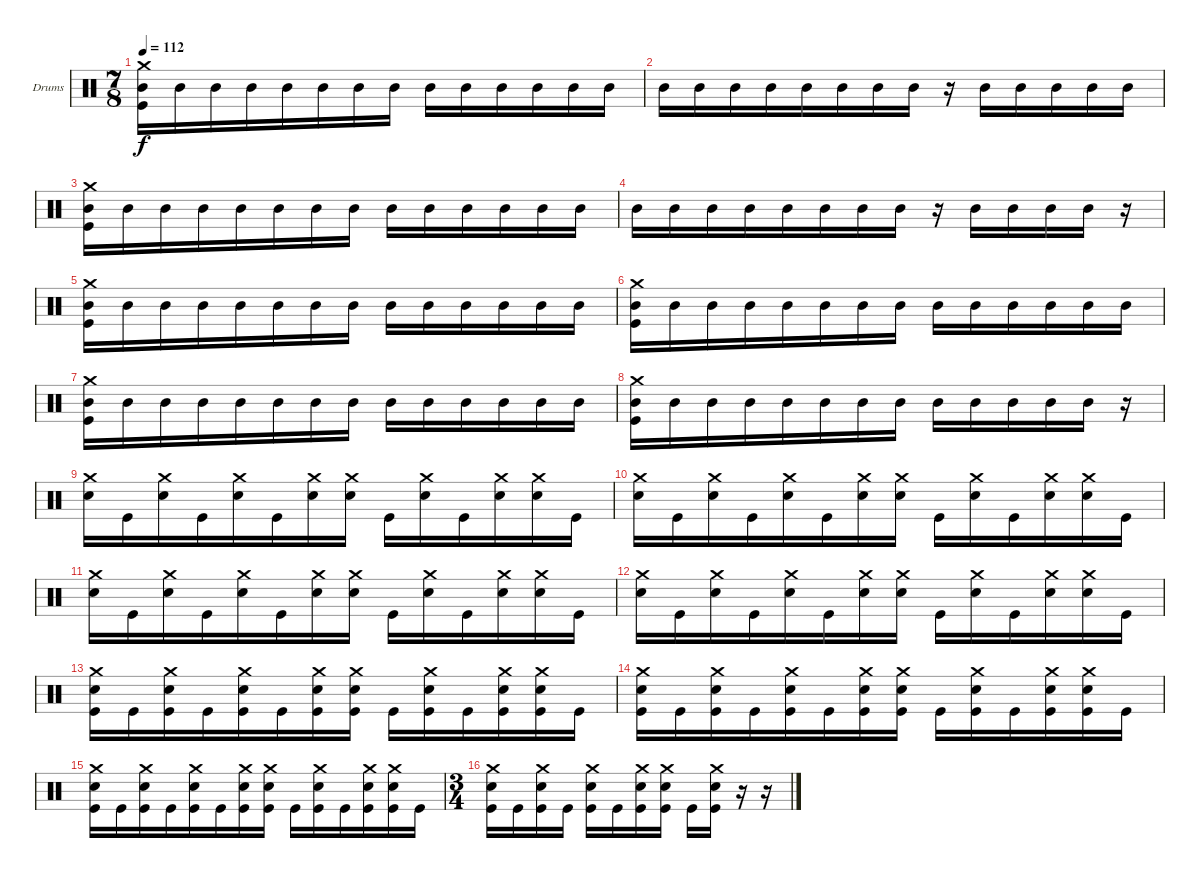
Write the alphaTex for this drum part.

\bracketExtendMode groupsimilarinstruments
\firstSystemTrackNameOrientation horizontal
\otherSystemsTrackNameOrientation horizontal
\track ("Drumkit" "Drums") {instrument percussion}
\staff {score}
\articulation defaults
\ts (7 8)
\tempo 112
\clef neutral
\ks c
("Crash medium (hit)" "Mid Tom (hit)" "Kick (hit)").16{dy f} "Mid Tom (hit)".16 "Mid Tom (hit)".16 "Mid Tom (hit)".16 "Mid Tom (hit)".16 "Mid Tom (hit)".16 "Mid Tom (hit)".16 "Mid Tom (hit)".16 "Mid Tom (hit)".16 "Mid Tom (hit)".16 "Mid Tom (hit)".16 "Mid Tom (hit)".16 "Mid Tom (hit)".16 "Mid Tom (hit)".16 |
"Mid Tom (hit)".16 "Mid Tom (hit)".16 "Mid Tom (hit)".16 "Mid Tom (hit)".16 "Mid Tom (hit)".16 "Mid Tom (hit)".16 "Mid Tom (hit)".16 "Mid Tom (hit)".16 r.16 "Mid Tom (hit)".16 "Mid Tom (hit)".16 "Mid Tom (hit)".16 "Mid Tom (hit)".16 "Mid Tom (hit)".16 |
("Crash medium (hit)" "Mid Tom (hit)" "Kick (hit)").16 "Mid Tom (hit)".16 "Mid Tom (hit)".16 "Mid Tom (hit)".16 "Mid Tom (hit)".16 "Mid Tom (hit)".16 "Mid Tom (hit)".16 "Mid Tom (hit)".16 "Mid Tom (hit)".16 "Mid Tom (hit)".16 "Mid Tom (hit)".16 "Mid Tom (hit)".16 "Mid Tom (hit)".16 "Mid Tom (hit)".16 |
"Mid Tom (hit)".16 "Mid Tom (hit)".16 "Mid Tom (hit)".16 "Mid Tom (hit)".16 "Mid Tom (hit)".16 "Mid Tom (hit)".16 "Mid Tom (hit)".16 "Mid Tom (hit)".16 r.16 "Mid Tom (hit)".16 "Mid Tom (hit)".16 "Mid Tom (hit)".16 "Mid Tom (hit)".16 r.16 |
("Crash medium (hit)" "Mid Tom (hit)" "Kick (hit)").16 "Mid Tom (hit)".16 "Mid Tom (hit)".16 "Mid Tom (hit)".16 "Mid Tom (hit)".16 "Mid Tom (hit)".16 "Mid Tom (hit)".16 "Mid Tom (hit)".16 "Mid Tom (hit)".16 "Mid Tom (hit)".16 "Mid Tom (hit)".16 "Mid Tom (hit)".16 "Mid Tom (hit)".16 "Mid Tom (hit)".16 |
("Crash medium (hit)" "Mid Tom (hit)" "Kick (hit)").16 "Mid Tom (hit)".16 "Mid Tom (hit)".16 "Mid Tom (hit)".16 "Mid Tom (hit)".16 "Mid Tom (hit)".16 "Mid Tom (hit)".16 "Mid Tom (hit)".16 "Mid Tom (hit)".16 "Mid Tom (hit)".16 "Mid Tom (hit)".16 "Mid Tom (hit)".16 "Mid Tom (hit)".16 "Mid Tom (hit)".16 |
("Crash medium (hit)" "Mid Tom (hit)" "Kick (hit)").16 "Mid Tom (hit)".16 "Mid Tom (hit)".16 "Mid Tom (hit)".16 "Mid Tom (hit)".16 "Mid Tom (hit)".16 "Mid Tom (hit)".16 "Mid Tom (hit)".16 "Mid Tom (hit)".16 "Mid Tom (hit)".16 "Mid Tom (hit)".16 "Mid Tom (hit)".16 "Mid Tom (hit)".16 "Mid Tom (hit)".16 |
("Crash medium (hit)" "Mid Tom (hit)" "Kick (hit)").16 "Mid Tom (hit)".16 "Mid Tom (hit)".16 "Mid Tom (hit)".16 "Mid Tom (hit)".16 "Mid Tom (hit)".16 "Mid Tom (hit)".16 "Mid Tom (hit)".16 "Mid Tom (hit)".16 "Mid Tom (hit)".16 "Mid Tom (hit)".16 "Mid Tom (hit)".16 "Mid Tom (hit)".16 r.16 |
("Crash medium (hit)" "Snare (hit) 2").16 "Kick (hit)".16 ("Crash medium (hit)" "Snare (hit) 2").16 "Kick (hit)".16 ("Crash medium (hit)" "Snare (hit) 2").16 "Kick (hit)".16 ("Crash medium (hit)" "Snare (hit) 2").16 ("Crash medium (hit)" "Snare (hit) 2").16 "Kick (hit)".16 ("Crash medium (hit)" "Snare (hit) 2").16 "Kick (hit)".16 ("Crash medium (hit)" "Snare (hit) 2").16 ("Crash medium (hit)" "Snare (hit) 2").16 "Kick (hit)".16 |
("Crash medium (hit)" "Snare (hit) 2").16 "Kick (hit)".16 ("Crash medium (hit)" "Snare (hit) 2").16 "Kick (hit)".16 ("Crash medium (hit)" "Snare (hit) 2").16 "Kick (hit)".16 ("Crash medium (hit)" "Snare (hit) 2").16 ("Crash medium (hit)" "Snare (hit) 2").16 "Kick (hit)".16 ("Crash medium (hit)" "Snare (hit) 2").16 "Kick (hit)".16 ("Crash medium (hit)" "Snare (hit) 2").16 ("Crash medium (hit)" "Snare (hit) 2").16 "Kick (hit)".16 |
("Crash medium (hit)" "Snare (hit) 2").16 "Kick (hit)".16 ("Crash medium (hit)" "Snare (hit) 2").16 "Kick (hit)".16 ("Crash medium (hit)" "Snare (hit) 2").16 "Kick (hit)".16 ("Crash medium (hit)" "Snare (hit) 2").16 ("Crash medium (hit)" "Snare (hit) 2").16 "Kick (hit)".16 ("Crash medium (hit)" "Snare (hit) 2").16 "Kick (hit)".16 ("Crash medium (hit)" "Snare (hit) 2").16 ("Crash medium (hit)" "Snare (hit) 2").16 "Kick (hit)".16 |
("Crash medium (hit)" "Snare (hit) 2").16 "Kick (hit)".16 ("Crash medium (hit)" "Snare (hit) 2").16 "Kick (hit)".16 ("Crash medium (hit)" "Snare (hit) 2").16 "Kick (hit)".16 ("Crash medium (hit)" "Snare (hit) 2").16 ("Crash medium (hit)" "Snare (hit) 2").16 "Kick (hit)".16 ("Crash medium (hit)" "Snare (hit) 2").16 "Kick (hit)".16 ("Crash medium (hit)" "Snare (hit) 2").16 ("Crash medium (hit)" "Snare (hit) 2").16 "Kick (hit)".16 |
("Crash medium (hit)" "Snare (hit) 2" "Kick (hit)").16 "Kick (hit)".16 ("Crash medium (hit)" "Snare (hit) 2" "Kick (hit)").16 "Kick (hit)".16 ("Crash medium (hit)" "Snare (hit) 2" "Kick (hit)").16 "Kick (hit)".16 ("Crash medium (hit)" "Snare (hit) 2" "Kick (hit)").16 ("Crash medium (hit)" "Snare (hit) 2" "Kick (hit)").16 "Kick (hit)".16 ("Crash medium (hit)" "Snare (hit) 2" "Kick (hit)").16 "Kick (hit)".16 ("Crash medium (hit)" "Snare (hit) 2" "Kick (hit)").16 ("Crash medium (hit)" "Snare (hit) 2" "Kick (hit)").16 "Kick (hit)".16 |
("Crash medium (hit)" "Snare (hit) 2" "Kick (hit)").16 "Kick (hit)".16 ("Crash medium (hit)" "Snare (hit) 2" "Kick (hit)").16 "Kick (hit)".16 ("Crash medium (hit)" "Snare (hit) 2" "Kick (hit)").16 "Kick (hit)".16 ("Crash medium (hit)" "Snare (hit) 2" "Kick (hit)").16 ("Crash medium (hit)" "Snare (hit) 2" "Kick (hit)").16 "Kick (hit)".16 ("Crash medium (hit)" "Snare (hit) 2" "Kick (hit)").16 "Kick (hit)".16 ("Crash medium (hit)" "Snare (hit) 2" "Kick (hit)").16 ("Crash medium (hit)" "Snare (hit) 2" "Kick (hit)").16 "Kick (hit)".16 |
("Crash medium (hit)" "Snare (hit) 2" "Kick (hit)").16 "Kick (hit)".16 ("Crash medium (hit)" "Snare (hit) 2" "Kick (hit)").16 "Kick (hit)".16 ("Crash medium (hit)" "Snare (hit) 2" "Kick (hit)").16 "Kick (hit)".16 ("Crash medium (hit)" "Snare (hit) 2" "Kick (hit)").16 ("Crash medium (hit)" "Snare (hit) 2" "Kick (hit)").16 "Kick (hit)".16 ("Crash medium (hit)" "Snare (hit) 2" "Kick (hit)").16 "Kick (hit)".16 ("Crash medium (hit)" "Snare (hit) 2" "Kick (hit)").16 ("Crash medium (hit)" "Snare (hit) 2" "Kick (hit)").16 "Kick (hit)".16 |
\ts (3 4)
("Crash medium (hit)" "Snare (hit) 2" "Kick (hit)").16 "Kick (hit)".16 ("Crash medium (hit)" "Snare (hit) 2" "Kick (hit)").16 "Kick (hit)".16 ("Crash medium (hit)" "Snare (hit) 2" "Kick (hit)").16 "Kick (hit)".16 ("Crash medium (hit)" "Snare (hit) 2" "Kick (hit)").16 ("Crash medium (hit)" "Snare (hit) 2" "Kick (hit)").16 "Kick (hit)".16 ("Crash medium (hit)" "Snare (hit) 2" "Kick (hit)").16 r.16 r.16
